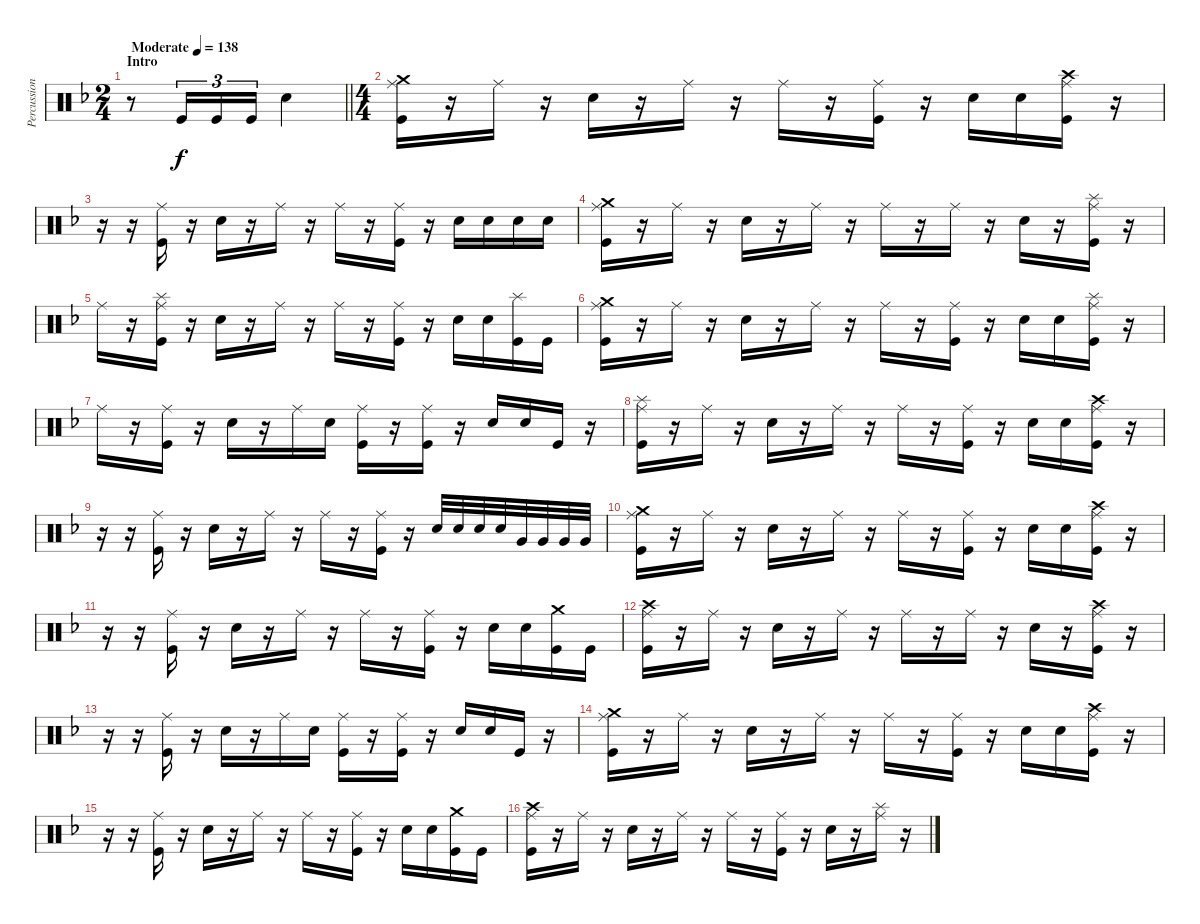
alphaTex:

\track ("Percussion" "Percussion") {instrument percussion}
\staff {score}
\articulation defaults
\ts (2 4)
\section ("" "Intro")
\tempo (138 "Moderate")
\clef neutral
\barLineRight lightlight
\ks f
r.8{dy f} "Kick (hit)".16{tu (3 2)} "Kick (hit)".16{tu (3 2)} "Kick (hit)".16{tu (3 2)} "Electric Snare (hit)".4 |
\ts (4 4)
("Ride (middle)" "Crash medium (hit)" "Kick (hit)").16 r.16 "Ride (middle)".16 r.16 "Electric Snare (hit)".16 r.16 "Ride (middle)".16 r.16 "Ride (middle)".16 r.16 ("Ride (middle)" "Kick (hit)").16 r.16 "Electric Snare (hit)".16 "Electric Snare (hit)".16 ("Ride (middle)" "Crash high (hit)" "Kick (hit)").16 r.16 |
r.16 r.16 ("Ride (middle)" "Kick (hit)").16 r.16 "Electric Snare (hit)".16 r.16 "Ride (middle)".16 r.16 "Ride (middle)".16 r.16 ("Ride (middle)" "Kick (hit)").16 r.16 "Electric Snare (hit)".16 "Electric Snare (hit)".16 "Electric Snare (hit)".16 "Electric Snare (hit)".16 |
("Ride (middle)" "Crash medium (hit)" "Kick (hit)").16 r.16 "Ride (middle)".16 r.16 "Electric Snare (hit)".16 r.16 "Ride (middle)".16 r.16 "Ride (middle)".16 r.16 "Ride (middle)".16 r.16 "Electric Snare (hit)".16 r.16 ("Ride (middle)" "Splash (hit)" "Kick (hit)").16 r.16 |
"Ride (middle)".16 r.16 ("Ride (middle)" "Splash (hit)" "Kick (hit)").16 r.16 "Electric Snare (hit)".16 r.16 "Ride (middle)".16 r.16 "Ride (middle)".16 r.16 ("Ride (middle)" "Kick (hit)").16 r.16 "Electric Snare (hit)".16 "Electric Snare (hit)".16 ("Splash (hit)" "Kick (hit)").16 "Kick (hit)".16 |
("Ride (middle)" "Crash medium (hit)" "Kick (hit)").16 r.16 "Ride (middle)".16 r.16 "Electric Snare (hit)".16 r.16 "Ride (middle)".16 r.16 "Ride (middle)".16 r.16 ("Ride (middle)" "Kick (hit)").16 r.16 "Electric Snare (hit)".16 "Electric Snare (hit)".16 ("Ride (middle)" "Splash (hit)" "Kick (hit)").16 r.16 |
"Ride (middle)".16 r.16 ("Ride (middle)" "Kick (hit)").16 r.16 "Electric Snare (hit)".16 r.16 "Ride (middle)".16 "Electric Snare (hit)".16 ("Ride (middle)" "Kick (hit)").16 r.16 ("Ride (middle)" "Kick (hit)").16 r.16 "Electric Snare (hit)".16 "Electric Snare (hit)".16 "Kick (hit)".16 r.16 |
("Ride (middle)" "Splash (hit)" "Kick (hit)").16 r.16 "Ride (middle)".16 r.16 "Electric Snare (hit)".16 r.16 "Ride (middle)".16 r.16 "Ride (middle)".16 r.16 ("Ride (middle)" "Kick (hit)").16 r.16 "Electric Snare (hit)".16 "Electric Snare (hit)".16 ("Ride (middle)" "Crash high (hit)" "Kick (hit)").16 r.16 |
r.16 r.16 ("Ride (middle)" "Kick (hit)").16 r.16 "Electric Snare (hit)".16 r.16 "Ride (middle)".16 r.16 "Ride (middle)".16 r.16 ("Ride (middle)" "Kick (hit)").16 r.16 "Electric Snare (hit)".32 "Electric Snare (hit)".32 "Electric Snare (hit)".32 "Electric Snare (hit)".32 "Very Low Tom (hit)".32 "Very Low Tom (hit)".32 "Very Low Tom (hit)".32 "Very Low Tom (hit)".32 |
("Ride (middle)" "Crash medium (hit)" "Kick (hit)").16 r.16 "Ride (middle)".16 r.16 "Electric Snare (hit)".16 r.16 "Ride (middle)".16 r.16 "Ride (middle)".16 r.16 ("Ride (middle)" "Kick (hit)").16 r.16 "Electric Snare (hit)".16 "Electric Snare (hit)".16 ("Ride (middle)" "Crash high (hit)" "Kick (hit)").16 r.16 |
r.16 r.16 ("Ride (middle)" "Kick (hit)").16 r.16 "Electric Snare (hit)".16 r.16 "Ride (middle)".16 r.16 "Ride (middle)".16 r.16 ("Ride (middle)" "Kick (hit)").16 r.16 "Electric Snare (hit)".16 "Electric Snare (hit)".16 ("Crash medium (hit)" "Kick (hit)").16 "Kick (hit)".16 |
("Ride (middle)" "Crash high (hit)" "Kick (hit)").16 r.16 "Ride (middle)".16 r.16 "Electric Snare (hit)".16 r.16 "Ride (middle)".16 r.16 "Ride (middle)".16 r.16 "Ride (middle)".16 r.16 "Electric Snare (hit)".16 r.16 ("Ride (middle)" "Crash high (hit)" "Kick (hit)").16 r.16 |
r.16 r.16 ("Ride (middle)" "Kick (hit)").16 r.16 "Electric Snare (hit)".16 r.16 "Ride (middle)".16 "Electric Snare (hit)".16 ("Ride (middle)" "Kick (hit)").16 r.16 ("Ride (middle)" "Kick (hit)").16 r.16 "Electric Snare (hit)".16 "Electric Snare (hit)".16 "Kick (hit)".16 r.16 |
("Ride (middle)" "Crash medium (hit)" "Kick (hit)").16 r.16 "Ride (middle)".16 r.16 "Electric Snare (hit)".16 r.16 "Ride (middle)".16 r.16 "Ride (middle)".16 r.16 ("Ride (middle)" "Kick (hit)").16 r.16 "Electric Snare (hit)".16 "Electric Snare (hit)".16 ("Ride (middle)" "Crash high (hit)" "Kick (hit)").16 r.16 |
r.16 r.16 ("Ride (middle)" "Kick (hit)").16 r.16 "Electric Snare (hit)".16 r.16 "Ride (middle)".16 r.16 "Ride (middle)".16 r.16 ("Ride (middle)" "Kick (hit)").16 r.16 "Electric Snare (hit)".16 "Electric Snare (hit)".16 ("Crash medium (hit)" "Kick (hit)").16 "Kick (hit)".16 |
("Ride (middle)" "Crash high (hit)" "Kick (hit)").16 r.16 "Ride (middle)".16 r.16 "Electric Snare (hit)".16 r.16 "Ride (middle)".16 r.16 "Ride (middle)".16 r.16 ("Ride (middle)" "Kick (hit)").16 r.16 "Electric Snare (hit)".16 r.16 ("Ride (middle)" "Splash (hit)").16 r.16
